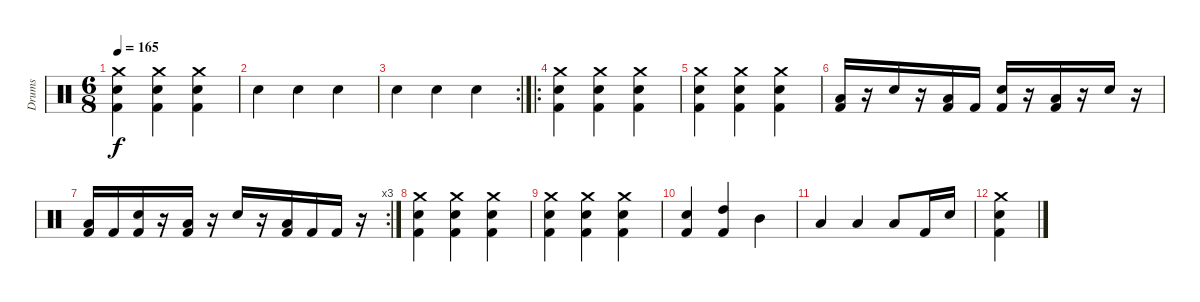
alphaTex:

\track ("Drums" "Drums") {instrument percussion}
\staff {score}
\articulation defaults
\ts (6 8)
\tempo 165
\clef neutral
\ks c
("Crash medium (hit)" "Snare (hit) 2" "Kick (hit) 2").4{dy f} ("Crash medium (hit)" "Snare (hit) 2" "Kick (hit) 2").4 ("Crash medium (hit)" "Snare (hit) 2" "Kick (hit) 2").4 |
"Snare (hit) 2".4 "Snare (hit) 2".4 "Snare (hit) 2".4 |
\rc 2 "Snare (hit) 2".4 "Snare (hit) 2".4 "Snare (hit) 2".4
|
\ro
("Crash medium (hit)" "Snare (hit) 2" "Kick (hit) 2").4 ("Crash medium (hit)" "Kick (hit) 2" "Snare (hit) 2").4 ("Crash medium (hit)" "Snare (hit) 2" "Kick (hit) 2").4 |
("Crash medium (hit)" "Kick (hit) 2" "Snare (hit) 2").4 ("Crash medium (hit)" "Kick (hit) 2" "Snare (hit) 2").4 ("Crash medium (hit)" "Kick (hit) 2" "Snare (hit) 2").4 |
("Low Floor Tom (hit)" "Kick (hit) 2").16 r.16 "Snare (hit) 2".16 r.16 ("Low Floor Tom (hit)" "Kick (hit) 2").16 "Kick (hit) 2".16 ("Snare (hit) 2" "Kick (hit) 2").16 r.16 ("Low Floor Tom (hit)" "Kick (hit) 2").16 r.16 "Snare (hit) 2".16 r.16 |
\rc 3
("Low Floor Tom (hit)" "Kick (hit) 2").16 "Kick (hit) 2".16 ("Snare (hit) 2" "Kick (hit) 2").16 r.16 ("Low Floor Tom (hit)" "Kick (hit) 2").16 r.16 "Snare (hit) 2".16 r.16 ("Low Floor Tom (hit)" "Kick (hit) 2").16 "Kick (hit) 2".16 "Kick (hit) 2".16 r.16 |
("Crash medium (hit)" "Snare (hit) 2" "Kick (hit) 2").4 ("Crash medium (hit)" "Snare (hit) 2" "Kick (hit) 2").4 ("Crash medium (hit)" "Snare (hit) 2" "Kick (hit) 2").4 |
("Crash medium (hit)" "Snare (hit) 2" "Kick (hit) 2").4 ("Crash medium (hit)" "Snare (hit) 2" "Kick (hit) 2").4 ("Crash medium (hit)" "Snare (hit) 2" "Kick (hit) 2").4 |
("Kick (hit) 2" "Snare (hit) 2").4 ("High Tom (hit)" "Kick (hit) 2").4 "Mid Tom (hit)".4 |
"Low Tom (hit)".4 "Low Tom (hit)".4 "Low Floor Tom (hit)".8 "Kick (hit) 2".16 "Snare (hit) 2".16 |
("Crash medium (hit)" "Snare (hit) 2" "Kick (hit) 2").4
